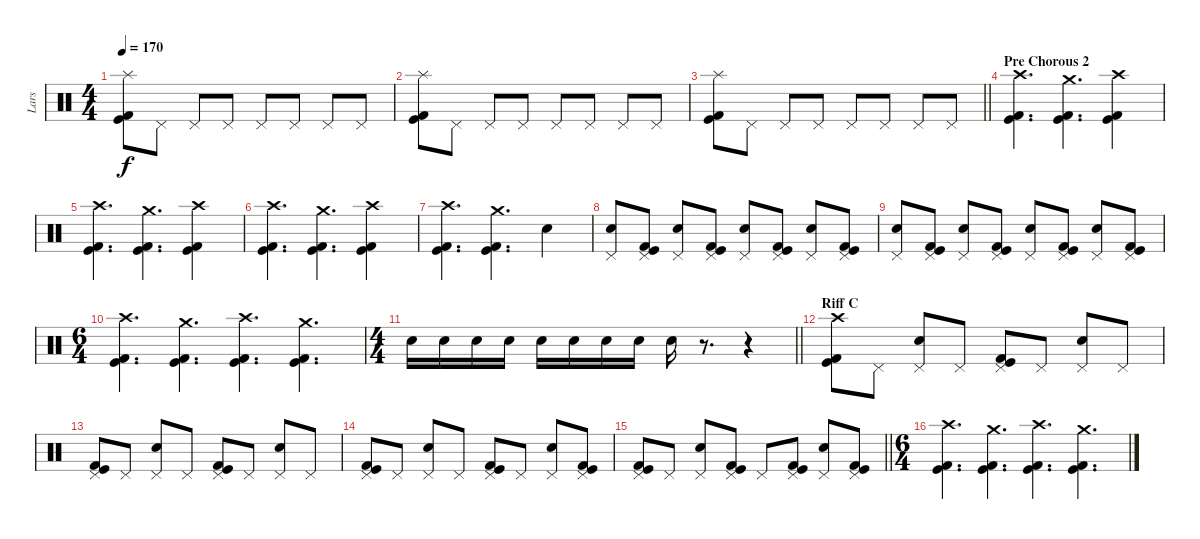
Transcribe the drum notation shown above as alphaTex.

\track ("Lars" "Lars") {instrument percussion}
\staff {score}
\articulation defaults
\ts (4 4)
\tempo 170
\clef neutral
\ks c
("Splash (hit)" "Kick (hit)" "Kick (hit) 2").8{dy f} "Pedal Hi-Hat (hit)".8 "Pedal Hi-Hat (hit)".8 "Pedal Hi-Hat (hit)".8 "Pedal Hi-Hat (hit)".8 "Pedal Hi-Hat (hit)".8 "Pedal Hi-Hat (hit)".8 "Pedal Hi-Hat (hit)".8 |
("Splash (hit)" "Kick (hit)" "Kick (hit) 2").8 "Pedal Hi-Hat (hit)".8 "Pedal Hi-Hat (hit)".8 "Pedal Hi-Hat (hit)".8 "Pedal Hi-Hat (hit)".8 "Pedal Hi-Hat (hit)".8 "Pedal Hi-Hat (hit)".8 "Pedal Hi-Hat (hit)".8 |
\barLineRight lightlight
("Splash (hit)" "Kick (hit)" "Kick (hit) 2").8 "Pedal Hi-Hat (hit)".8 "Pedal Hi-Hat (hit)".8 "Pedal Hi-Hat (hit)".8 "Pedal Hi-Hat (hit)".8 "Pedal Hi-Hat (hit)".8 "Pedal Hi-Hat (hit)".8 "Pedal Hi-Hat (hit)".8 |
\section ("" "Pre Chorous 2")
("Crash high (hit)" "Kick (hit)" "Kick (hit) 2").4{d} ("Crash medium (hit)" "Kick (hit)" "Kick (hit) 2").4{d} ("Crash high (hit)" "Kick (hit)" "Kick (hit) 2").4 |
("Crash high (hit)" "Kick (hit)" "Kick (hit) 2").4{d} ("Crash medium (hit)" "Kick (hit)" "Kick (hit) 2").4{d} ("Crash high (hit)" "Kick (hit)" "Kick (hit) 2").4 |
("Crash high (hit)" "Kick (hit)" "Kick (hit) 2").4{d} ("Crash medium (hit)" "Kick (hit)" "Kick (hit) 2").4{d} ("Crash high (hit)" "Kick (hit)" "Kick (hit) 2").4 |
("Crash high (hit)" "Kick (hit)" "Kick (hit) 2").4{d} ("Crash medium (hit)" "Kick (hit)" "Kick (hit) 2").4{d} "Electric Snare (hit)".4 |
("Pedal Hi-Hat (hit)" "Electric Snare (hit)").8 ("Pedal Hi-Hat (hit)" "Kick (hit)" "Kick (hit) 2").8 ("Pedal Hi-Hat (hit)" "Electric Snare (hit)").8 ("Pedal Hi-Hat (hit)" "Kick (hit)" "Kick (hit) 2").8 ("Pedal Hi-Hat (hit)" "Electric Snare (hit)").8 ("Pedal Hi-Hat (hit)" "Kick (hit)" "Kick (hit) 2").8 ("Pedal Hi-Hat (hit)" "Electric Snare (hit)").8 ("Pedal Hi-Hat (hit)" "Kick (hit)" "Kick (hit) 2").8 |
("Pedal Hi-Hat (hit)" "Electric Snare (hit)").8 ("Pedal Hi-Hat (hit)" "Kick (hit)" "Kick (hit) 2").8 ("Pedal Hi-Hat (hit)" "Electric Snare (hit)").8 ("Pedal Hi-Hat (hit)" "Kick (hit)" "Kick (hit) 2").8 ("Pedal Hi-Hat (hit)" "Electric Snare (hit)").8 ("Pedal Hi-Hat (hit)" "Kick (hit)" "Kick (hit) 2").8 ("Pedal Hi-Hat (hit)" "Electric Snare (hit)").8 ("Pedal Hi-Hat (hit)" "Kick (hit)" "Kick (hit) 2").8 |
\ts (6 4)
("Crash high (hit)" "Kick (hit)" "Kick (hit) 2").4{d} ("Crash medium (hit)" "Kick (hit)" "Kick (hit) 2").4{d} ("Crash high (hit)" "Kick (hit)" "Kick (hit) 2").4{d} ("Crash medium (hit)" "Kick (hit)" "Kick (hit) 2").4{d} |
\ts (4 4)
\barLineRight lightlight "Electric Snare (hit)".16 "Electric Snare (hit)".16 "Electric Snare (hit)".16 "Electric Snare (hit)".16 "Electric Snare (hit)".16 "Electric Snare (hit)".16 "Electric Snare (hit)".16 "Electric Snare (hit)".16 "Electric Snare (hit)".16
r.8{d} r.4 |
\section ("" "Riff C")
("Crash high (hit)" "Kick (hit)" "Kick (hit) 2").8 "Pedal Hi-Hat (hit)".8 ("Pedal Hi-Hat (hit)" "Electric Snare (hit)").8 "Pedal Hi-Hat (hit)".8 ("Pedal Hi-Hat (hit)" "Kick (hit)" "Kick (hit) 2").8 "Pedal Hi-Hat (hit)".8 ("Pedal Hi-Hat (hit)" "Electric Snare (hit)").8 "Pedal Hi-Hat (hit)".8 |
("Pedal Hi-Hat (hit)" "Kick (hit)" "Kick (hit) 2").8 "Pedal Hi-Hat (hit)".8 ("Pedal Hi-Hat (hit)" "Electric Snare (hit)").8 "Pedal Hi-Hat (hit)".8 ("Pedal Hi-Hat (hit)" "Kick (hit)" "Kick (hit) 2").8 "Pedal Hi-Hat (hit)".8 ("Pedal Hi-Hat (hit)" "Electric Snare (hit)").8 "Pedal Hi-Hat (hit)".8 |
("Pedal Hi-Hat (hit)" "Kick (hit)" "Kick (hit) 2").8 "Pedal Hi-Hat (hit)".8 ("Pedal Hi-Hat (hit)" "Electric Snare (hit)").8 "Pedal Hi-Hat (hit)".8 ("Pedal Hi-Hat (hit)" "Kick (hit)" "Kick (hit) 2").8 "Pedal Hi-Hat (hit)".8 ("Pedal Hi-Hat (hit)" "Electric Snare (hit)").8 ("Pedal Hi-Hat (hit)" "Kick (hit)" "Kick (hit) 2").8 |
\barLineRight lightlight
("Pedal Hi-Hat (hit)" "Kick (hit)" "Kick (hit) 2").8 "Pedal Hi-Hat (hit)".8 ("Pedal Hi-Hat (hit)" "Electric Snare (hit)").8 ("Pedal Hi-Hat (hit)" "Kick (hit)" "Kick (hit) 2").8 "Pedal Hi-Hat (hit)".8 ("Pedal Hi-Hat (hit)" "Kick (hit)" "Kick (hit) 2").8 ("Pedal Hi-Hat (hit)" "Electric Snare (hit)").8 ("Pedal Hi-Hat (hit)" "Kick (hit)" "Kick (hit) 2").8 |
\ts (6 4)
("Crash high (hit)" "Kick (hit)" "Kick (hit) 2").4{d} ("Crash medium (hit)" "Kick (hit)" "Kick (hit) 2").4{d} ("Crash high (hit)" "Kick (hit)" "Kick (hit) 2").4{d} ("Crash medium (hit)" "Kick (hit)" "Kick (hit) 2").4{d}
